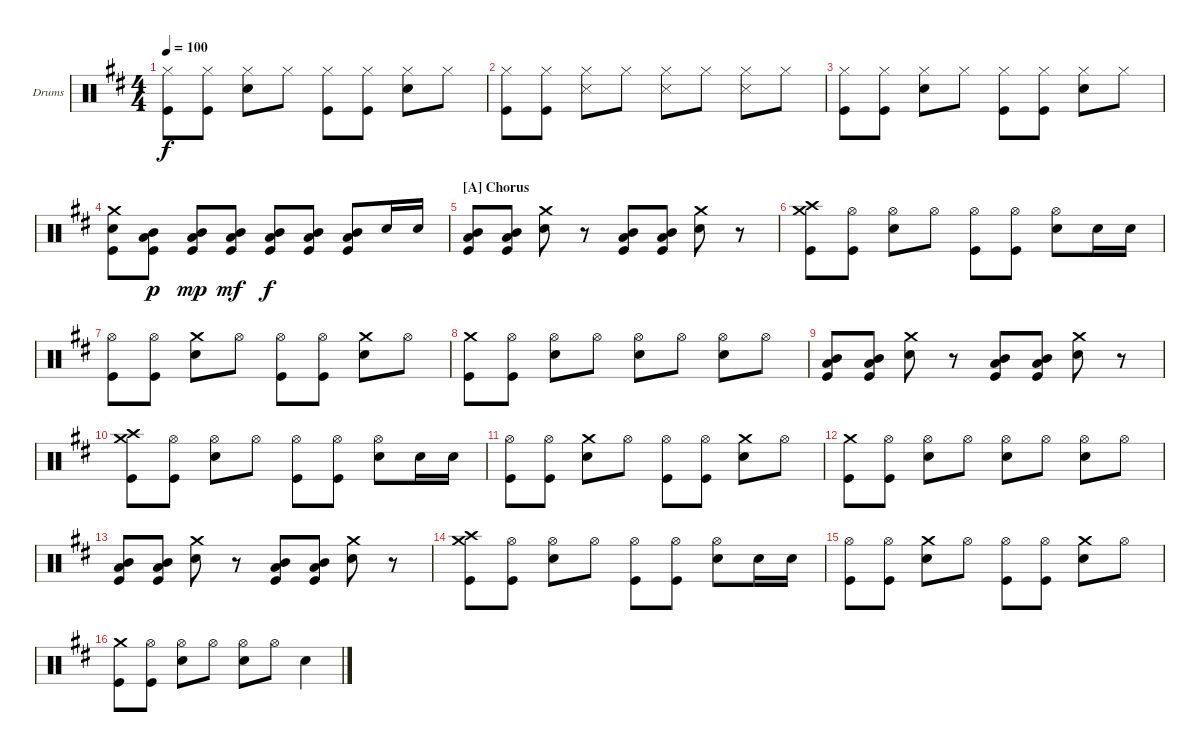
\defaultSystemsLayout 4
\bracketExtendMode groupsimilarinstruments
\firstSystemTrackNameOrientation horizontal
\otherSystemsTrackNameOrientation horizontal
\track ("Drumkit" "Drums") {instrument percussion}
\staff {score}
\articulation defaults
\ts (4 4)
\tempo 100
\clef neutral
\scale
1.05044
\ks d
("Hi-Hat (closed)" "Kick (hit)").8{dy f} ("Hi-Hat (closed)" "Kick (hit)").8 ("Hi-Hat (closed)" "Snare (hit) 2").8 "Hi-Hat (closed)".8 ("Hi-Hat (closed)" "Kick (hit)").8 ("Hi-Hat (closed)" "Kick (hit)").8 ("Hi-Hat (closed)" "Snare (hit) 2").8 "Hi-Hat (closed)".8 |
\scale
0.949559 ("Hi-Hat (closed)" "Kick (hit)").8 ("Hi-Hat (closed)" "Kick (hit)").8 ("Hi-Hat (closed)" "Snare (side stick) 3").8 "Hi-Hat (closed)".8 ("Hi-Hat (closed)" "Snare (side stick) 3").8 "Hi-Hat (closed)".8 ("Hi-Hat (closed)" "Snare (side stick) 3").8 "Hi-Hat (closed)".8 |
\scale
1.05044 ("Hi-Hat (closed)" "Kick (hit)").8 ("Hi-Hat (closed)" "Kick (hit)").8 ("Hi-Hat (closed)" "Snare (hit) 2").8 "Hi-Hat (closed)".8 ("Hi-Hat (closed)" "Kick (hit)").8 ("Hi-Hat (closed)" "Kick (hit)").8 ("Hi-Hat (closed)" "Snare (hit) 2").8 "Hi-Hat (closed)".8 |
\scale
0.949559 ("Crash medium (hit)" "Snare (hit) 2" "Kick (hit)").8 ("Mid Tom (hit)" "Low Tom (hit)" "Kick (hit)").8{dy p} ("Mid Tom (hit)" "Low Tom (hit)" "Kick (hit)").8{dy mp} ("Mid Tom (hit)" "Low Tom (hit)" "Kick (hit)").8{dy mf} ("Mid Tom (hit)" "Low Tom (hit)" "Kick (hit)").8{dy f} ("Mid Tom (hit)" "Low Tom (hit)" "Kick (hit)").8 ("Mid Tom (hit)" "Low Tom (hit)" "Kick (hit)").8 "Snare (hit) 2".16 "Snare (hit) 2".16 |
\section ("A" "Chorus")
\scale
1.05044 ("Mid Tom (hit)" "Low Tom (hit)" "Kick (hit)").8 ("Mid Tom (hit)" "Low Tom (hit)" "Kick (hit)").8 ("Crash medium (hit)" "Snare (hit) 2").8 r.8 ("Mid Tom (hit)" "Low Tom (hit)" "Kick (hit)").8 ("Mid Tom (hit)" "Low Tom (hit)" "Kick (hit)").8 ("Crash medium (hit)" "Snare (hit) 2").8 r.8 |
\scale
0.949559 ("Crash high (hit)" "Crash medium (hit)" "Kick (hit)").8 ("Hi-Hat (open)" "Kick (hit)").8 ("Hi-Hat (open)" "Snare (hit) 2").8 "Hi-Hat (open)".8 ("Hi-Hat (open)" "Kick (hit)").8 ("Hi-Hat (open)" "Kick (hit)").8 ("Hi-Hat (open)" "Snare (hit) 2").8 "Snare (hit) 2".16 "Snare (hit) 2".16 |
\scale
1.05044 ("Hi-Hat (open)" "Kick (hit)").8 ("Hi-Hat (open)" "Kick (hit)").8 ("Crash medium (hit)" "Snare (hit) 2").8 "Hi-Hat (open)".8 ("Hi-Hat (open)" "Kick (hit)").8 ("Hi-Hat (open)" "Kick (hit)").8 ("Crash medium (hit)" "Snare (hit) 2").8 "Hi-Hat (open)".8 |
\scale
0.949559 ("Crash medium (hit)" "Kick (hit)").8 ("Hi-Hat (open)" "Kick (hit)").8 ("Hi-Hat (open)" "Snare (hit) 2").8 "Hi-Hat (open)".8 ("Hi-Hat (open)" "Snare (hit) 2").8 "Hi-Hat (open)".8 ("Hi-Hat (open)" "Snare (hit) 2").8 "Hi-Hat (open)".8 |
\scale
1.05044 ("Mid Tom (hit)" "Low Tom (hit)" "Kick (hit)").8 ("Mid Tom (hit)" "Low Tom (hit)" "Kick (hit)").8 ("Crash medium (hit)" "Snare (hit) 2").8 r.8 ("Mid Tom (hit)" "Low Tom (hit)" "Kick (hit)").8 ("Mid Tom (hit)" "Low Tom (hit)" "Kick (hit)").8 ("Crash medium (hit)" "Snare (hit) 2").8 r.8 |
\scale
0.949559 ("Crash high (hit)" "Crash medium (hit)" "Kick (hit)").8 ("Hi-Hat (open)" "Kick (hit)").8 ("Hi-Hat (open)" "Snare (hit) 2").8 "Hi-Hat (open)".8 ("Hi-Hat (open)" "Kick (hit)").8 ("Hi-Hat (open)" "Kick (hit)").8 ("Hi-Hat (open)" "Snare (hit) 2").8 "Snare (hit) 2".16 "Snare (hit) 2".16 |
\scale
1.05044 ("Hi-Hat (open)" "Kick (hit)").8 ("Hi-Hat (open)" "Kick (hit)").8 ("Crash medium (hit)" "Snare (hit) 2").8 "Hi-Hat (open)".8 ("Hi-Hat (open)" "Kick (hit)").8 ("Hi-Hat (open)" "Kick (hit)").8 ("Crash medium (hit)" "Snare (hit) 2").8 "Hi-Hat (open)".8 |
\scale
0.949559 ("Crash medium (hit)" "Kick (hit)").8 ("Hi-Hat (open)" "Kick (hit)").8 ("Hi-Hat (open)" "Snare (hit) 2").8 "Hi-Hat (open)".8 ("Hi-Hat (open)" "Snare (hit) 2").8 "Hi-Hat (open)".8 ("Hi-Hat (open)" "Snare (hit) 2").8 "Hi-Hat (open)".8 |
\scale
1.05044 ("Mid Tom (hit)" "Low Tom (hit)" "Kick (hit)").8 ("Mid Tom (hit)" "Low Tom (hit)" "Kick (hit)").8 ("Crash medium (hit)" "Snare (hit) 2").8 r.8 ("Mid Tom (hit)" "Low Tom (hit)" "Kick (hit)").8 ("Mid Tom (hit)" "Low Tom (hit)" "Kick (hit)").8 ("Crash medium (hit)" "Snare (hit) 2").8 r.8 |
\scale
0.949559 ("Crash high (hit)" "Crash medium (hit)" "Kick (hit)").8 ("Hi-Hat (open)" "Kick (hit)").8 ("Hi-Hat (open)" "Snare (hit) 2").8 "Hi-Hat (open)".8 ("Hi-Hat (open)" "Kick (hit)").8 ("Hi-Hat (open)" "Kick (hit)").8 ("Hi-Hat (open)" "Snare (hit) 2").8 "Snare (hit) 2".16 "Snare (hit) 2".16 |
\scale
1.05044 ("Hi-Hat (open)" "Kick (hit)").8 ("Hi-Hat (open)" "Kick (hit)").8 ("Crash medium (hit)" "Snare (hit) 2").8 "Hi-Hat (open)".8 ("Hi-Hat (open)" "Kick (hit)").8 ("Hi-Hat (open)" "Kick (hit)").8 ("Crash medium (hit)" "Snare (hit) 2").8 "Hi-Hat (open)".8 |
\scale
0.949559 ("Crash medium (hit)" "Kick (hit)").8 ("Hi-Hat (open)" "Kick (hit)").8 ("Hi-Hat (open)" "Snare (hit) 2").8 "Hi-Hat (open)".8 ("Hi-Hat (open)" "Snare (hit) 2").8 "Hi-Hat (open)".8 "Snare (hit) 2".4
